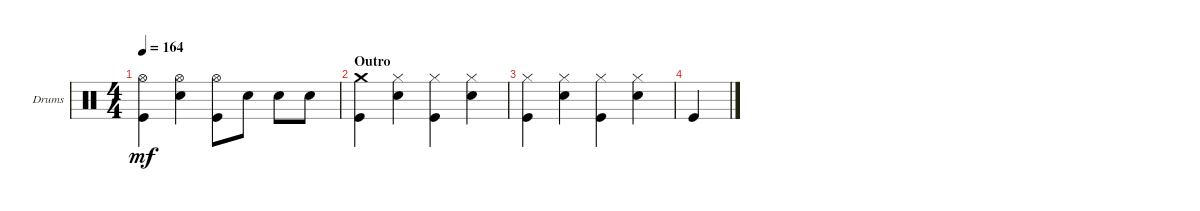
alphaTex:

\defaultSystemsLayout 4
\bracketExtendMode groupsimilarinstruments
\firstSystemTrackNameOrientation horizontal
\otherSystemsTrackNameOrientation horizontal
\track ("Drumkit" "Drums") {instrument percussion}
\staff {score}
\articulation defaults
\ts (4 4)
\tempo 164
\clef neutral
\ks c
("Kick (hit)" "Hi-Hat (open)").4{dy mf} ("Snare (hit) 2" "Hi-Hat (open)").4 ("Kick (hit)" "Hi-Hat (open)").8 "Snare (hit) 2".8 "Snare (hit) 2".8 "Snare (hit) 2".8 |
\section ("" "Outro")
("Kick (hit)" "Crash medium (hit)").4 ("Snare (hit) 2" "Hi-Hat (closed)").4 ("Kick (hit)" "Hi-Hat (closed)").4 ("Snare (hit) 2" "Hi-Hat (closed)").4 |
("Kick (hit)" "Hi-Hat (closed)").4 ("Snare (hit) 2" "Hi-Hat (closed)").4 ("Kick (hit)" "Hi-Hat (closed)").4 ("Snare (hit) 2" "Hi-Hat (closed)").4 |
"Kick (hit)".4
